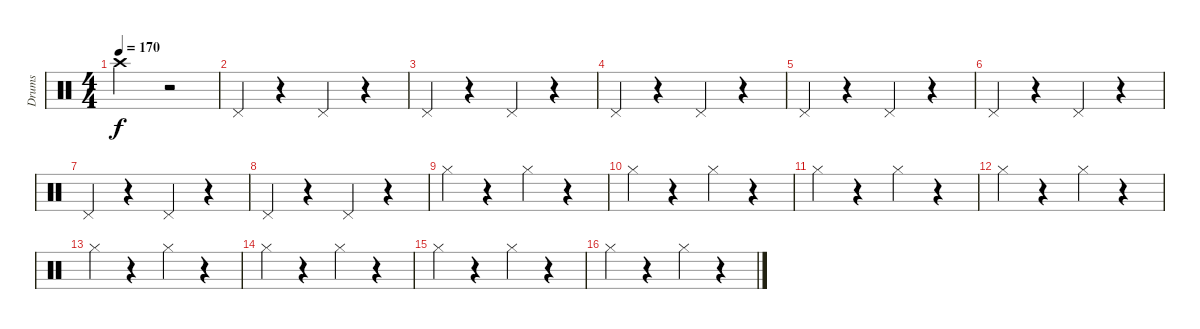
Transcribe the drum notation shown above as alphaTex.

\track ("Drums" "Drums") {instrument percussion}
\staff {score}
\articulation defaults
\ts (4 4)
\tempo 170
\clef neutral
\ks c "Crash high (hit)".2{dy f}
r.2 |
"Pedal Hi-Hat (hit)".4 r.4 "Pedal Hi-Hat (hit)".4 r.4 |
"Pedal Hi-Hat (hit)".4 r.4 "Pedal Hi-Hat (hit)".4 r.4 |
"Pedal Hi-Hat (hit)".4 r.4 "Pedal Hi-Hat (hit)".4 r.4 |
"Pedal Hi-Hat (hit)".4 r.4 "Pedal Hi-Hat (hit)".4 r.4 |
"Pedal Hi-Hat (hit)".4 r.4 "Pedal Hi-Hat (hit)".4 r.4 |
"Pedal Hi-Hat (hit)".4 r.4 "Pedal Hi-Hat (hit)".4 r.4 |
"Pedal Hi-Hat (hit)".4 r.4 "Pedal Hi-Hat (hit)".4 r.4 |
"Hi-Hat (closed)".4 r.4 "Hi-Hat (closed)".4 r.4 |
"Hi-Hat (closed)".4 r.4 "Hi-Hat (closed)".4 r.4 |
"Hi-Hat (closed)".4 r.4 "Hi-Hat (closed)".4 r.4 |
"Hi-Hat (closed)".4 r.4 "Hi-Hat (closed)".4 r.4 |
"Hi-Hat (closed)".4 r.4 "Hi-Hat (closed)".4 r.4 |
"Hi-Hat (closed)".4 r.4 "Hi-Hat (closed)".4 r.4 |
"Hi-Hat (closed)".4 r.4 "Hi-Hat (closed)".4 r.4 |
"Hi-Hat (closed)".4 r.4 "Hi-Hat (closed)".4 r.4
